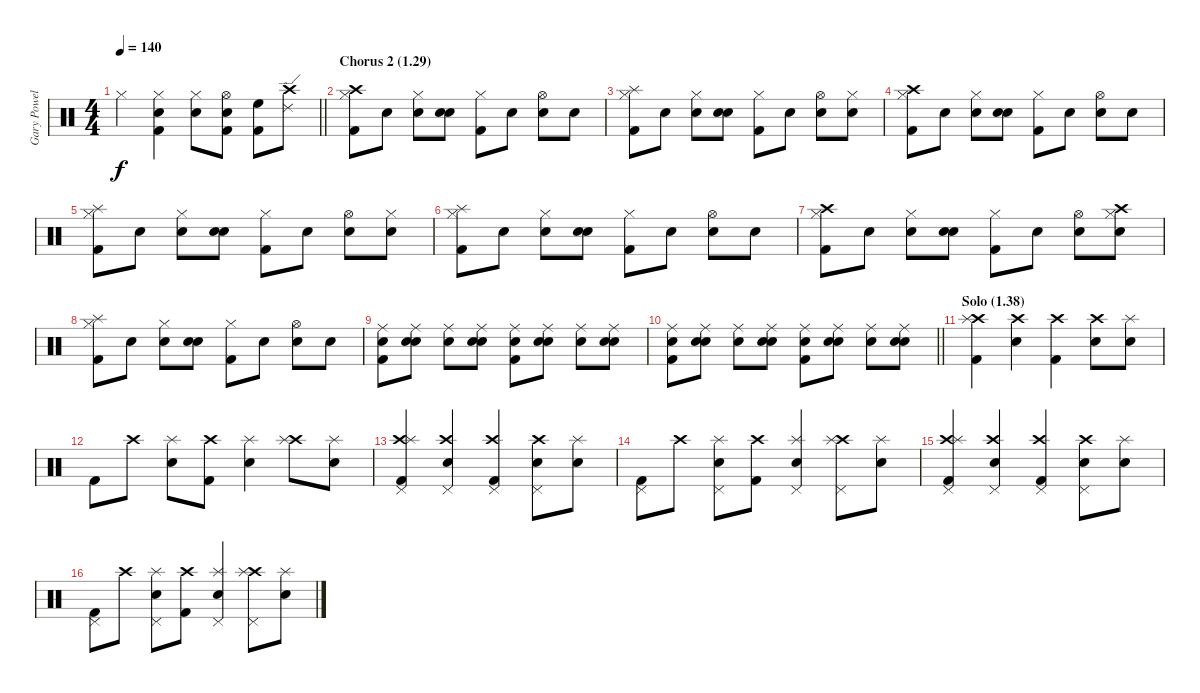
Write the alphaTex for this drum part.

\track ("Gary Powell (Drums)" "Gary Powel") {instrument percussion}
\staff {score}
\articulation defaults
\ts (4 4)
\tempo 140
\clef neutral
\barLineRight lightlight
\ks c "Hi-Hat (closed)".4{dy f}
("Kick (hit) 2" "Hi-Hat (closed)" "Snare (hit) 2").4 ("Hi-Hat (closed)" "Snare (hit) 2").8 ("Kick (hit) 2" "Hi-Hat (open)" "Snare (hit) 2").8 ("Kick (hit) 2" "High Floor Tom (hit)").8 ("Ride (edge) 2" "Crash high (hit)").8 |
\section ("" "Chorus 2 (1.29)")
("Kick (hit) 2" "Crash high (hit)" "Hi-Hat (closed)").8 "Snare (hit)".8 ("Snare (hit) 2" "Hi-Hat (closed)").8 ("Snare (hit)" "Snare (hit) 2").8 ("Kick (hit) 2" "Hi-Hat (closed)").8 "Snare (hit)".8 ("Snare (hit) 2" "Hi-Hat (open)").8 "Snare (hit)".8 |
("Kick (hit) 2" "Splash (hit)" "Hi-Hat (closed)").8 "Snare (hit)".8 ("Snare (hit) 2" "Hi-Hat (closed)").8 ("Snare (hit)" "Snare (hit) 2").8 ("Kick (hit) 2" "Hi-Hat (closed)").8 "Snare (hit)".8 ("Snare (hit) 2" "Hi-Hat (open)").8 ("Snare (hit)" "Hi-Hat (closed)").8 |
("Kick (hit) 2" "Crash high (hit)" "Hi-Hat (closed)").8 "Snare (hit)".8 ("Snare (hit) 2" "Hi-Hat (closed)").8 ("Snare (hit)" "Snare (hit) 2").8 ("Kick (hit) 2" "Hi-Hat (closed)").8 "Snare (hit)".8 ("Snare (hit) 2" "Hi-Hat (open)").8 "Snare (hit)".8 |
("Kick (hit) 2" "Splash (hit)" "Hi-Hat (closed)").8 "Snare (hit)".8 ("Snare (hit) 2" "Hi-Hat (closed)").8 ("Snare (hit)" "Snare (hit) 2").8 ("Kick (hit) 2" "Hi-Hat (closed)").8 "Snare (hit)".8 ("Snare (hit) 2" "Hi-Hat (open)").8 ("Snare (hit)" "Hi-Hat (closed)").8 |
("Kick (hit) 2" "Splash (hit)" "Hi-Hat (closed)").8 "Snare (hit)".8 ("Snare (hit) 2" "Hi-Hat (closed)").8 ("Snare (hit)" "Snare (hit) 2").8 ("Kick (hit) 2" "Hi-Hat (closed)").8 "Snare (hit)".8 ("Snare (hit) 2" "Hi-Hat (open)").8 "Snare (hit)".8 |
("Kick (hit) 2" "Crash high (hit)" "Hi-Hat (closed)").8 "Snare (hit)".8 ("Snare (hit) 2" "Hi-Hat (closed)").8 ("Snare (hit)" "Snare (hit) 2").8 ("Kick (hit) 2" "Hi-Hat (closed)").8 "Snare (hit)".8 ("Snare (hit) 2" "Hi-Hat (open)").8 ("Snare (hit)" "Crash high (hit)" "Hi-Hat (closed)").8 |
("Kick (hit) 2" "Splash (hit)" "Hi-Hat (closed)").8 "Snare (hit)".8 ("Snare (hit) 2" "Hi-Hat (closed)").8 ("Snare (hit)" "Snare (hit) 2").8 ("Kick (hit) 2" "Hi-Hat (closed)").8 "Snare (hit)".8 ("Snare (hit) 2" "Hi-Hat (open)").8 "Snare (hit)".8 |
("Kick (hit) 2" "Snare (hit) 2" "Ride (middle)").8 ("Snare (hit)" "Snare (hit) 2" "Ride (middle)").8 ("Snare (hit) 2" "Ride (middle)").8 ("Snare (hit)" "Snare (hit) 2" "Ride (middle)").8 ("Kick (hit) 2" "Snare (hit) 2" "Ride (middle)").8 ("Snare (hit)" "Snare (hit) 2" "Ride (middle)").8 ("Snare (hit) 2" "Ride (middle)").8 ("Snare (hit)" "Snare (hit) 2" "Ride (middle)").8 |
\barLineRight lightlight
("Kick (hit) 2" "Snare (hit) 2" "Ride (middle)").8 ("Snare (hit)" "Snare (hit) 2" "Ride (middle)").8 ("Snare (hit) 2" "Ride (middle)").8 ("Snare (hit)" "Snare (hit) 2" "Ride (middle)").8 ("Kick (hit) 2" "Snare (hit) 2" "Ride (middle)").8 ("Snare (hit)" "Snare (hit) 2" "Ride (middle)").8 ("Snare (hit) 2" "Ride (middle)").8 ("Snare (hit)" "Snare (hit) 2" "Ride (middle)").8 |
\section ("" "Solo (1.38)")
("Kick (hit) 2" "Crash high (hit)" "Splash (hit)").4 ("Crash high (hit)" "Snare (hit) 2").4 ("Kick (hit) 2" "Crash high (hit)").4 ("Crash high (hit)" "Snare (hit) 2").8 ("Splash (hit)" "Snare (hit) 2").8 |
"Kick (hit) 2".8 "Crash high (hit)".8 ("Splash (hit)" "Snare (hit) 2").8 ("Kick (hit) 2" "Crash high (hit)").8 ("Splash (hit)" "Snare (hit) 2").4 ("Crash high (hit)" "Splash (hit)").8 ("Splash (hit)" "Snare (hit) 2").8 |
("Kick (hit) 2" "Crash high (hit)" "Splash (hit)" "Pedal Hi-Hat (hit)").4 ("Crash high (hit)" "Snare (hit) 2" "Pedal Hi-Hat (hit)").4 ("Kick (hit) 2" "Crash high (hit)" "Pedal Hi-Hat (hit)").4 ("Crash high (hit)" "Snare (hit) 2" "Pedal Hi-Hat (hit)").8 ("Splash (hit)" "Snare (hit) 2").8 |
("Kick (hit) 2" "Pedal Hi-Hat (hit)").8 "Crash high (hit)".8 ("Splash (hit)" "Snare (hit) 2" "Pedal Hi-Hat (hit)").8 ("Kick (hit) 2" "Crash high (hit)").8 ("Splash (hit)" "Snare (hit) 2" "Pedal Hi-Hat (hit)").4 ("Crash high (hit)" "Splash (hit)" "Pedal Hi-Hat (hit)").8 ("Splash (hit)" "Snare (hit) 2").8 |
("Kick (hit) 2" "Crash high (hit)" "Splash (hit)" "Pedal Hi-Hat (hit)").4 ("Crash high (hit)" "Snare (hit) 2" "Pedal Hi-Hat (hit)").4 ("Kick (hit) 2" "Crash high (hit)" "Pedal Hi-Hat (hit)").4 ("Crash high (hit)" "Snare (hit) 2" "Pedal Hi-Hat (hit)").8 ("Splash (hit)" "Snare (hit) 2").8 |
("Kick (hit) 2" "Pedal Hi-Hat (hit)").8 "Crash high (hit)".8 ("Splash (hit)" "Snare (hit) 2" "Pedal Hi-Hat (hit)").8 ("Kick (hit) 2" "Crash high (hit)").8 ("Splash (hit)" "Snare (hit) 2" "Pedal Hi-Hat (hit)").4 ("Crash high (hit)" "Splash (hit)" "Pedal Hi-Hat (hit)").8 ("Splash (hit)" "Snare (hit) 2").8
